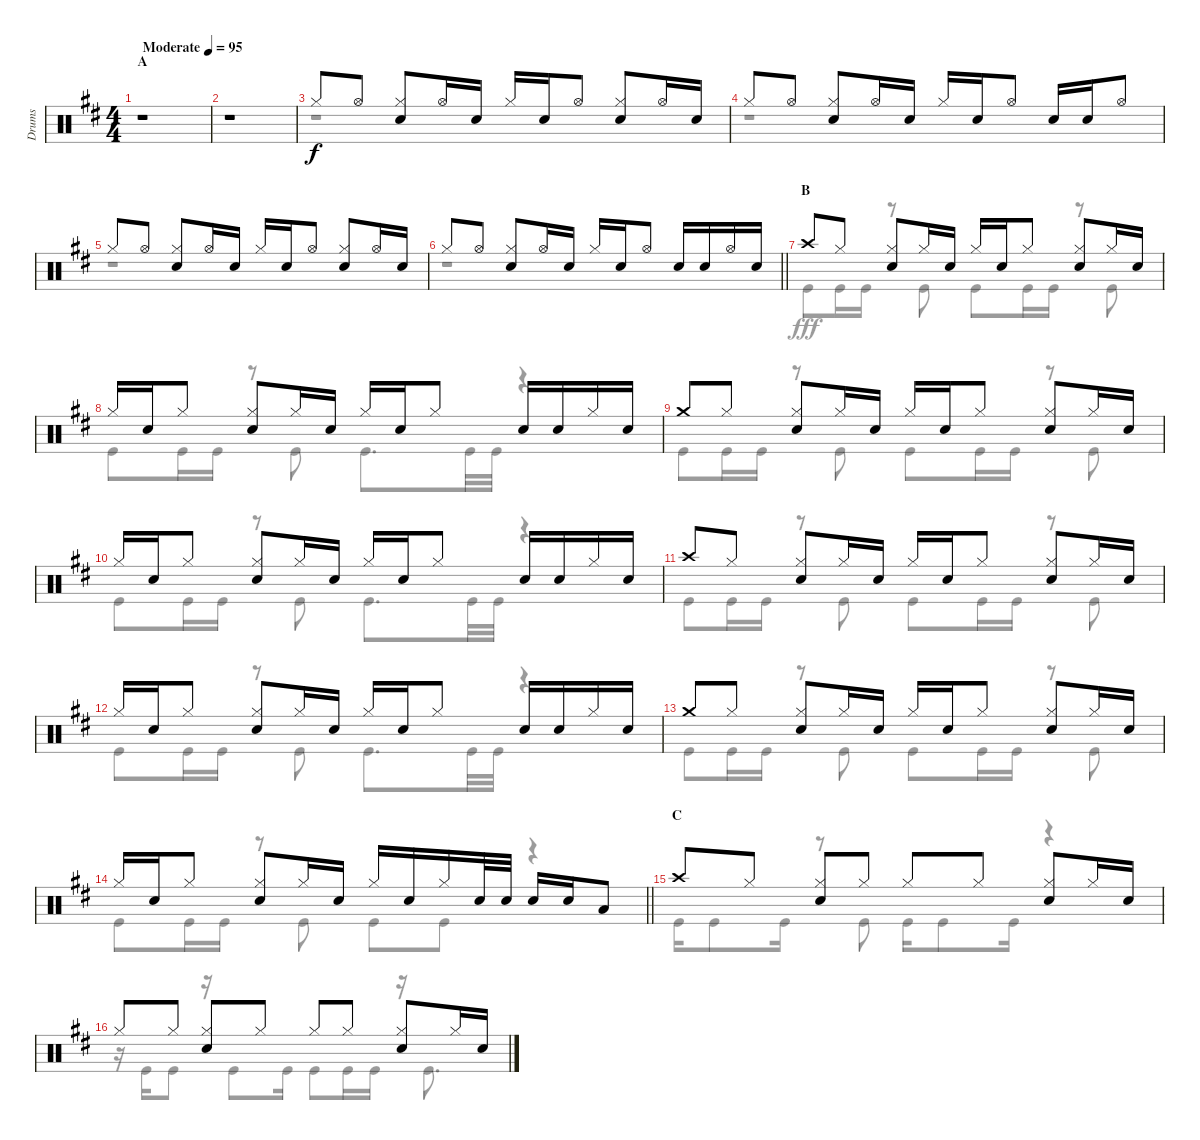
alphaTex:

\track ("Drums" "Drums") {instrument percussion}
\staff {score}
\articulation defaults
\voice
\ts (4 4)
\section ("" "A")
\tempo (95 "Moderate")
\clef neutral
\ks d
r.1{dy f} |
r.1 |
"Hi-Hat (closed)".8 "Hi-Hat (open)".8 ("Hi-Hat (closed)" "Snare (hit) 2").8 "Hi-Hat (open)".16 "Snare (hit) 2".16 "Hi-Hat (closed)".16 "Snare (hit) 2".16 "Hi-Hat (open)".8 ("Hi-Hat (closed)" "Snare (hit) 2").8 "Hi-Hat (open)".16 "Snare (hit) 2".16 |
"Hi-Hat (closed)".8 "Hi-Hat (open)".8 ("Hi-Hat (closed)" "Snare (hit) 2").8 "Hi-Hat (open)".16 "Snare (hit) 2".16 "Hi-Hat (closed)".16 "Snare (hit) 2".16 "Hi-Hat (open)".8 "Snare (hit) 2".16 "Snare (hit) 2".16 "Hi-Hat (open)".8 |
"Hi-Hat (closed)".8 "Hi-Hat (open)".8 ("Hi-Hat (closed)" "Snare (hit) 2").8 "Hi-Hat (open)".16 "Snare (hit) 2".16 "Hi-Hat (closed)".16 "Snare (hit) 2".16 "Hi-Hat (open)".8 ("Hi-Hat (closed)" "Snare (hit) 2").8 "Hi-Hat (open)".16 "Snare (hit) 2".16 |
\barLineRight lightlight "Hi-Hat (closed)".8 "Hi-Hat (open)".8
("Hi-Hat (closed)" "Snare (hit) 2").8 "Hi-Hat (open)".16 "Snare (hit) 2".16 "Hi-Hat (closed)".16 "Snare (hit) 2".16 "Hi-Hat (open)".8 "Snare (hit) 2".16 "Snare (hit) 2".16 "Hi-Hat (open)".16 "Snare (hit) 2".16 |
\section ("" "B")
"Crash high (hit)".8 "Hi-Hat (closed)".8 ("Hi-Hat (closed)" "Snare (hit) 2").8 "Hi-Hat (closed)".16 "Snare (hit) 2".16 "Hi-Hat (closed)".16 "Snare (hit) 2".16 "Hi-Hat (closed)".8 ("Hi-Hat (closed)" "Snare (hit) 2").8 "Hi-Hat (closed)".16 "Snare (hit) 2".16 |
"Hi-Hat (closed)".16 "Snare (hit) 2".16 "Hi-Hat (closed)".8 ("Hi-Hat (closed)" "Snare (hit) 2").8 "Hi-Hat (closed)".16 "Snare (hit) 2".16 "Hi-Hat (closed)".16 "Snare (hit) 2".16 "Hi-Hat (closed)".8 "Snare (hit) 2".16 "Snare (hit) 2".16 "Hi-Hat (closed)".16 "Snare (hit) 2".16 |
"Crash medium (hit)".8 "Hi-Hat (closed)".8 ("Hi-Hat (closed)" "Snare (hit) 2").8 "Hi-Hat (closed)".16 "Snare (hit) 2".16 "Hi-Hat (closed)".16 "Snare (hit) 2".16 "Hi-Hat (closed)".8 ("Hi-Hat (closed)" "Snare (hit) 2").8 "Hi-Hat (closed)".16 "Snare (hit) 2".16 |
"Hi-Hat (closed)".16 "Snare (hit) 2".16 "Hi-Hat (closed)".8 ("Hi-Hat (closed)" "Snare (hit) 2").8 "Hi-Hat (closed)".16 "Snare (hit) 2".16 "Hi-Hat (closed)".16 "Snare (hit) 2".16 "Hi-Hat (closed)".8 "Snare (hit) 2".16 "Snare (hit) 2".16 "Hi-Hat (closed)".16 "Snare (hit) 2".16 |
"Crash high (hit)".8 "Hi-Hat (closed)".8 ("Hi-Hat (closed)" "Snare (hit) 2").8 "Hi-Hat (closed)".16 "Snare (hit) 2".16 "Hi-Hat (closed)".16 "Snare (hit) 2".16 "Hi-Hat (closed)".8 ("Hi-Hat (closed)" "Snare (hit) 2").8 "Hi-Hat (closed)".16 "Snare (hit) 2".16 |
"Hi-Hat (closed)".16 "Snare (hit) 2".16 "Hi-Hat (closed)".8 ("Hi-Hat (closed)" "Snare (hit) 2").8 "Hi-Hat (closed)".16 "Snare (hit) 2".16 "Hi-Hat (closed)".16 "Snare (hit) 2".16 "Hi-Hat (closed)".8 "Snare (hit) 2".16 "Snare (hit) 2".16 "Hi-Hat (closed)".16 "Snare (hit) 2".16 |
"Crash medium (hit)".8 "Hi-Hat (closed)".8 ("Hi-Hat (closed)" "Snare (hit) 2").8 "Hi-Hat (closed)".16 "Snare (hit) 2".16 "Hi-Hat (closed)".16 "Snare (hit) 2".16 "Hi-Hat (closed)".8 ("Hi-Hat (closed)" "Snare (hit) 2").8 "Hi-Hat (closed)".16 "Snare (hit) 2".16 |
\barLineRight lightlight "Hi-Hat (closed)".16 "Snare (hit) 2".16 "Hi-Hat (closed)".8
("Hi-Hat (closed)" "Snare (hit) 2").8 "Hi-Hat (closed)".16 "Snare (hit) 2".16 "Hi-Hat (closed)".16 "Snare (hit) 2".16 "Hi-Hat (closed)".16 "Snare (hit) 2".32 "Snare (hit) 2".32 "Snare (hit) 2".16 "Snare (hit) 2".16 "Low Tom (hit)".8 |
\section ("" "C")
"Crash high (hit)".8 "Hi-Hat (closed)".8 ("Hi-Hat (closed)" "Snare (hit) 2").8 "Hi-Hat (closed)".8 "Hi-Hat (closed)".8 "Hi-Hat (closed)".8 ("Hi-Hat (closed)" "Snare (hit) 2").8 "Hi-Hat (closed)".16 "Snare (hit) 2".16 |
"Hi-Hat (closed)".8 "Hi-Hat (closed)".8 ("Hi-Hat (closed)" "Snare (hit) 2").8 "Hi-Hat (closed)".8 "Hi-Hat (closed)".8 "Hi-Hat (closed)".8 ("Hi-Hat (closed)" "Snare (hit) 2").8 "Hi-Hat (closed)".16 "Snare (hit) 2".16
\voice
\clef neutral
\ottava regular
\simile none
\ks d
r.1{dy fff} |
r.1 |
r.1 |
r.1 |
r.1 |
\barLineRight lightlight
r.1 |
"Kick (hit)".8 "Kick (hit)".16 "Kick (hit)".16 r.8 "Kick (hit)".8 "Kick (hit)".8 "Kick (hit)".16 "Kick (hit)".16 r.8 "Kick (hit)".8 |
"Kick (hit)".8 "Kick (hit)".16 "Kick (hit)".16 r.8 "Kick (hit)".8 "Kick (hit)".8{d} "Kick (hit)".32 "Kick (hit)".32 r.4 |
"Kick (hit)".8 "Kick (hit)".16 "Kick (hit)".16 r.8 "Kick (hit)".8 "Kick (hit)".8 "Kick (hit)".16 "Kick (hit)".16 r.8 "Kick (hit)".8 |
"Kick (hit)".8 "Kick (hit)".16 "Kick (hit)".16 r.8 "Kick (hit)".8 "Kick (hit)".8{d} "Kick (hit)".32 "Kick (hit)".32 r.4 |
"Kick (hit)".8 "Kick (hit)".16 "Kick (hit)".16 r.8 "Kick (hit)".8 "Kick (hit)".8 "Kick (hit)".16 "Kick (hit)".16 r.8 "Kick (hit)".8 |
"Kick (hit)".8 "Kick (hit)".16 "Kick (hit)".16 r.8 "Kick (hit)".8 "Kick (hit)".8{d} "Kick (hit)".32 "Kick (hit)".32 r.4 |
"Kick (hit)".8 "Kick (hit)".16 "Kick (hit)".16 r.8 "Kick (hit)".8 "Kick (hit)".8 "Kick (hit)".16 "Kick (hit)".16 r.8 "Kick (hit)".8 |
\barLineRight lightlight "Kick (hit)".8 "Kick (hit)".16 "Kick (hit)".16
r.8 "Kick (hit)".8 "Kick (hit)".8 "Kick (hit)".8 r.4 |
"Kick (hit)".16 "Kick (hit)".8 "Kick (hit)".16 r.8 "Kick (hit)".8 "Kick (hit)".16 "Kick (hit)".8 "Kick (hit)".16 r.4 |
r.16 "Kick (hit)".16 "Kick (hit)".8 r.16 "Kick (hit)".8 "Kick (hit)".16 "Kick (hit)".8 "Kick (hit)".16 "Kick (hit)".16 r.16 "Kick (hit)".8{d}
